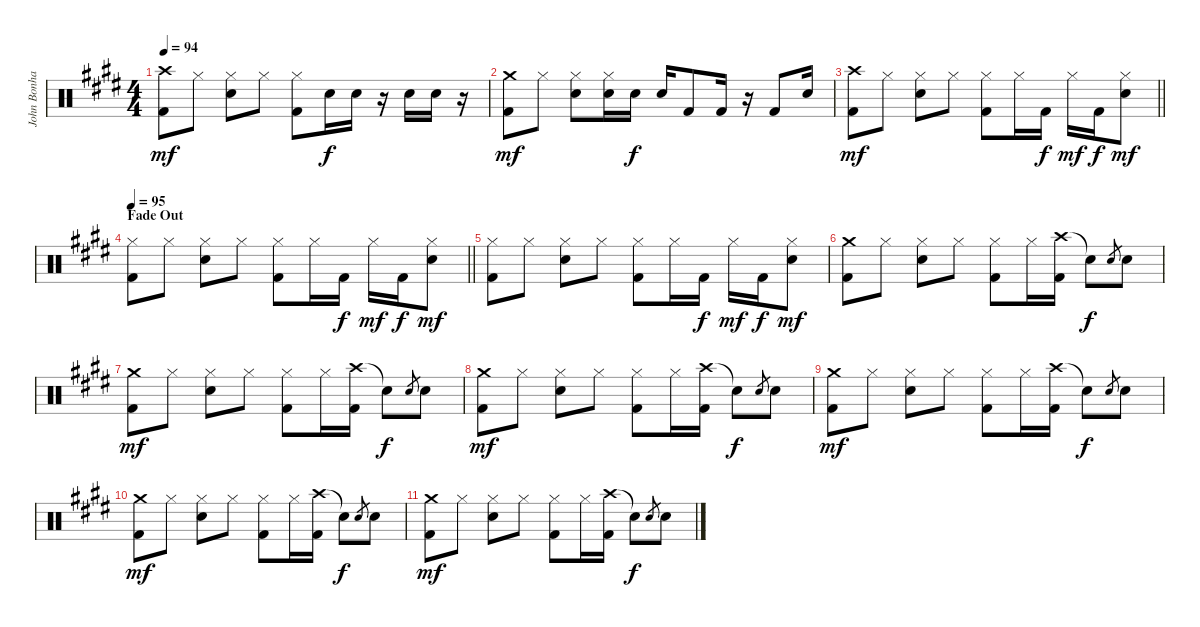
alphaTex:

\track ("John Bonham Drums" "John Bonha") {instrument percussion}
\staff {score}
\articulation defaults
\ts (4 4)
\tempo 94
\clef neutral
\ks e
("Crash high (hit)" "Kick (hit) 2").8{dy mf} "Hi-Hat (closed)".8 ("Hi-Hat (closed)" "Snare (hit) 2").8 "Hi-Hat (closed)".8 ("Hi-Hat (closed)" "Kick (hit) 2").8 "Snare (hit) 2".16{dy f} "Snare (hit) 2".16 r.16 "Snare (hit) 2".16 "Snare (hit) 2".16 r.16 |
("Crash medium (hit)" "Kick (hit) 2").8{dy mf} "Hi-Hat (closed)".8 ("Hi-Hat (closed)" "Snare (hit) 2").8 ("Hi-Hat (closed)" "Snare (hit) 2").16 "Snare (hit) 2".16{dy f} "Snare (hit) 2".16 "Kick (hit) 2".8 "Kick (hit) 2".16 r.16 "Kick (hit) 2".8 "Snare (hit) 2".16 |
\barLineRight lightlight
("Crash high (hit)" "Kick (hit) 2").8{dy mf} "Hi-Hat (closed)".8 ("Hi-Hat (closed)" "Snare (hit) 2").8 "Hi-Hat (closed)".8 ("Hi-Hat (closed)" "Kick (hit) 2").8 "Hi-Hat (closed)".16 "Kick (hit) 2".16{dy f} "Hi-Hat (closed)".16{dy mf} "Kick (hit) 2".16{dy f} ("Hi-Hat (closed)" "Snare (hit) 2").8{dy mf} |
\section ("" "Fade Out")
\tempo 95
\barLineRight lightlight
("Hi-Hat (closed)" "Kick (hit) 2").8 "Hi-Hat (closed)".8 ("Hi-Hat (closed)" "Snare (hit) 2").8 "Hi-Hat (closed)".8 ("Hi-Hat (closed)" "Kick (hit) 2").8 "Hi-Hat (closed)".16 "Kick (hit) 2".16{dy f} "Hi-Hat (closed)".16{dy mf} "Kick (hit) 2".16{dy f} ("Hi-Hat (closed)" "Snare (hit) 2").8{dy mf} |
("Hi-Hat (closed)" "Kick (hit) 2").8 "Hi-Hat (closed)".8 ("Hi-Hat (closed)" "Snare (hit) 2").8 "Hi-Hat (closed)".8 ("Hi-Hat (closed)" "Kick (hit) 2").8 "Hi-Hat (closed)".16 "Kick (hit) 2".16{dy f} "Hi-Hat (closed)".16{dy mf} "Kick (hit) 2".16{dy f} ("Hi-Hat (closed)" "Snare (hit) 2").8{dy mf} |
("Crash medium (hit)" "Kick (hit) 2").8 "Hi-Hat (closed)".8 ("Hi-Hat (closed)" "Snare (hit) 2").8 "Hi-Hat (closed)".8 ("Hi-Hat (closed)" "Kick (hit) 2").8 "Hi-Hat (closed)".16 ("Crash high (hit)" "Kick (hit) 2").16 "Snare (hit)"{t}.8{dy f} "Snare (hit) 2".8{gr} "Snare (hit) 2".8 |
("Crash medium (hit)" "Kick (hit) 2").8{dy mf} "Hi-Hat (closed)".8 ("Hi-Hat (closed)" "Snare (hit) 2").8 "Hi-Hat (closed)".8 ("Hi-Hat (closed)" "Kick (hit) 2").8 "Hi-Hat (closed)".16 ("Crash high (hit)" "Kick (hit) 2").16 "Snare (hit)"{t}.8{dy f} "Snare (hit) 2".8{gr} "Snare (hit) 2".8 |
("Crash medium (hit)" "Kick (hit) 2").8{dy mf} "Hi-Hat (closed)".8 ("Hi-Hat (closed)" "Snare (hit) 2").8 "Hi-Hat (closed)".8 ("Hi-Hat (closed)" "Kick (hit) 2").8 "Hi-Hat (closed)".16 ("Crash high (hit)" "Kick (hit) 2").16 "Snare (hit)"{t}.8{dy f} "Snare (hit) 2".8{gr} "Snare (hit) 2".8 |
("Crash medium (hit)" "Kick (hit) 2").8{dy mf} "Hi-Hat (closed)".8 ("Hi-Hat (closed)" "Snare (hit) 2").8 "Hi-Hat (closed)".8 ("Hi-Hat (closed)" "Kick (hit) 2").8 "Hi-Hat (closed)".16 ("Crash high (hit)" "Kick (hit) 2").16 "Snare (hit)"{t}.8{dy f} "Snare (hit) 2".8{gr} "Snare (hit) 2".8 |
("Crash medium (hit)" "Kick (hit) 2").8{dy mf} "Hi-Hat (closed)".8 ("Hi-Hat (closed)" "Snare (hit) 2").8 "Hi-Hat (closed)".8 ("Hi-Hat (closed)" "Kick (hit) 2").8 "Hi-Hat (closed)".16 ("Crash high (hit)" "Kick (hit) 2").16 "Snare (hit)"{t}.8{dy f} "Snare (hit) 2".8{gr} "Snare (hit) 2".8 |
("Crash medium (hit)" "Kick (hit) 2").8{dy mf} "Hi-Hat (closed)".8 ("Hi-Hat (closed)" "Snare (hit) 2").8 "Hi-Hat (closed)".8 ("Hi-Hat (closed)" "Kick (hit) 2").8 "Hi-Hat (closed)".16 ("Crash high (hit)" "Kick (hit) 2").16 "Snare (hit)"{t}.8{dy f} "Snare (hit) 2".8{gr} "Snare (hit) 2".8
